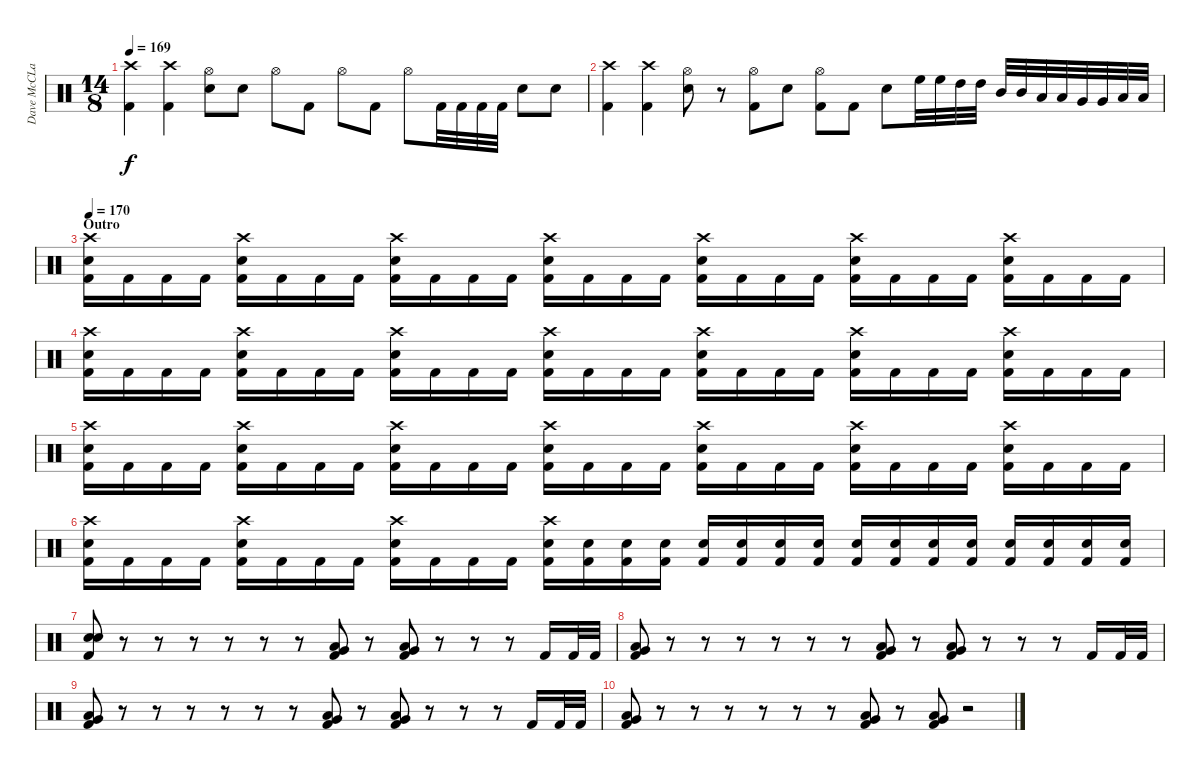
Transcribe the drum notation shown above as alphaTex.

\track ("Dave McCLain" "Dave McCLa") {instrument percussion}
\staff {score}
\articulation defaults
\ts (14 8)
\tempo 169
\clef neutral
\ks c
("Crash high (hit)" "Kick (hit) 2").4{dy f} ("Crash high (hit)" "Kick (hit) 2").4 ("Hi-Hat (open)" "Electric Snare (hit)").8 "Electric Snare (hit)".8 "Hi-Hat (open)".8 "Kick (hit) 2".8 "Hi-Hat (open)".8 "Kick (hit) 2".8 "Hi-Hat (open)".8 "Kick (hit) 2".32 "Kick (hit) 2".32 "Kick (hit) 2".32 "Kick (hit) 2".32 "Electric Snare (hit)".8 "Electric Snare (hit)".8 |
("Crash high (hit)" "Kick (hit) 2").4 ("Crash high (hit)" "Kick (hit) 2").4 ("Hi-Hat (open)" "Electric Snare (hit)").8 r.8 ("Hi-Hat (open)" "Kick (hit) 2").8 "Electric Snare (hit)".8 ("Hi-Hat (open)" "Kick (hit) 2").8 "Kick (hit) 2".8 "Electric Snare (hit)".8 "High Floor Tom (hit)".32 "High Floor Tom (hit)".32 "High Tom (hit)".32 "High Tom (hit)".32 "Mid Tom (hit)".32 "Mid Tom (hit)".32 "Low Tom (hit)".32 "Low Tom (hit)".32 "Very Low Tom (hit)".32 "Very Low Tom (hit)".32 "Low Floor Tom (hit)".32 "Low Floor Tom (hit)".32 |
\section ("" "Outro")
\tempo 170
("Crash high (hit)" "Electric Snare (hit)" "Kick (hit) 2").16 "Kick (hit) 2".16 "Kick (hit) 2".16 "Kick (hit) 2".16 ("Crash high (hit)" "Electric Snare (hit)" "Kick (hit) 2").16 "Kick (hit) 2".16 "Kick (hit) 2".16 "Kick (hit) 2".16 ("Crash high (hit)" "Electric Snare (hit)" "Kick (hit) 2").16 "Kick (hit) 2".16 "Kick (hit) 2".16 "Kick (hit) 2".16 ("Crash high (hit)" "Electric Snare (hit)" "Kick (hit) 2").16 "Kick (hit) 2".16 "Kick (hit) 2".16 "Kick (hit) 2".16 ("Crash high (hit)" "Electric Snare (hit)" "Kick (hit) 2").16 "Kick (hit) 2".16 "Kick (hit) 2".16 "Kick (hit) 2".16 ("Crash high (hit)" "Electric Snare (hit)" "Kick (hit) 2").16 "Kick (hit) 2".16 "Kick (hit) 2".16 "Kick (hit) 2".16 ("Crash high (hit)" "Electric Snare (hit)" "Kick (hit) 2").16 "Kick (hit) 2".16 "Kick (hit) 2".16 "Kick (hit) 2".16 |
("Crash high (hit)" "Electric Snare (hit)" "Kick (hit) 2").16 "Kick (hit) 2".16 "Kick (hit) 2".16 "Kick (hit) 2".16 ("Crash high (hit)" "Electric Snare (hit)" "Kick (hit) 2").16 "Kick (hit) 2".16 "Kick (hit) 2".16 "Kick (hit) 2".16 ("Crash high (hit)" "Electric Snare (hit)" "Kick (hit) 2").16 "Kick (hit) 2".16 "Kick (hit) 2".16 "Kick (hit) 2".16 ("Crash high (hit)" "Electric Snare (hit)" "Kick (hit) 2").16 "Kick (hit) 2".16 "Kick (hit) 2".16 "Kick (hit) 2".16 ("Crash high (hit)" "Electric Snare (hit)" "Kick (hit) 2").16 "Kick (hit) 2".16 "Kick (hit) 2".16 "Kick (hit) 2".16 ("Crash high (hit)" "Electric Snare (hit)" "Kick (hit) 2").16 "Kick (hit) 2".16 "Kick (hit) 2".16 "Kick (hit) 2".16 ("Crash high (hit)" "Electric Snare (hit)" "Kick (hit) 2").16 "Kick (hit) 2".16 "Kick (hit) 2".16 "Kick (hit) 2".16 |
("Crash high (hit)" "Electric Snare (hit)" "Kick (hit) 2").16 "Kick (hit) 2".16 "Kick (hit) 2".16 "Kick (hit) 2".16 ("Crash high (hit)" "Electric Snare (hit)" "Kick (hit) 2").16 "Kick (hit) 2".16 "Kick (hit) 2".16 "Kick (hit) 2".16 ("Crash high (hit)" "Electric Snare (hit)" "Kick (hit) 2").16 "Kick (hit) 2".16 "Kick (hit) 2".16 "Kick (hit) 2".16 ("Crash high (hit)" "Electric Snare (hit)" "Kick (hit) 2").16 "Kick (hit) 2".16 "Kick (hit) 2".16 "Kick (hit) 2".16 ("Crash high (hit)" "Electric Snare (hit)" "Kick (hit) 2").16 "Kick (hit) 2".16 "Kick (hit) 2".16 "Kick (hit) 2".16 ("Crash high (hit)" "Electric Snare (hit)" "Kick (hit) 2").16 "Kick (hit) 2".16 "Kick (hit) 2".16 "Kick (hit) 2".16 ("Crash high (hit)" "Electric Snare (hit)" "Kick (hit) 2").16 "Kick (hit) 2".16 "Kick (hit) 2".16 "Kick (hit) 2".16 |
("Crash high (hit)" "Electric Snare (hit)" "Kick (hit) 2").16 "Kick (hit) 2".16 "Kick (hit) 2".16 "Kick (hit) 2".16 ("Crash high (hit)" "Electric Snare (hit)" "Kick (hit) 2").16 "Kick (hit) 2".16 "Kick (hit) 2".16 "Kick (hit) 2".16 ("Crash high (hit)" "Electric Snare (hit)" "Kick (hit) 2").16 "Kick (hit) 2".16 "Kick (hit) 2".16 "Kick (hit) 2".16 ("Crash high (hit)" "Electric Snare (hit)" "Kick (hit) 2").16 ("Electric Snare (hit)" "Kick (hit) 2").16 ("Electric Snare (hit)" "Kick (hit) 2").16 ("Electric Snare (hit)" "Kick (hit) 2").16 ("Electric Snare (hit)" "Kick (hit) 2").16 ("Electric Snare (hit)" "Kick (hit) 2").16 ("Electric Snare (hit)" "Kick (hit) 2").16 ("Electric Snare (hit)" "Kick (hit) 2").16 ("Electric Snare (hit)" "Kick (hit) 2").16 ("Electric Snare (hit)" "Kick (hit) 2").16 ("Electric Snare (hit)" "Kick (hit) 2").16 ("Electric Snare (hit)" "Kick (hit) 2").16 ("Electric Snare (hit)" "Kick (hit) 2").16 ("Electric Snare (hit)" "Kick (hit) 2").16 ("Electric Snare (hit)" "Kick (hit) 2").16 ("Electric Snare (hit)" "Kick (hit) 2").16 |
("Electric Snare (hit)" "Electric Snare (hit)" "Kick (hit) 2").8 r.8 r.8 r.8 r.8 r.8 r.8 ("Low Tom (hit)" "Very Low Tom (hit)" "Kick (hit) 2").8 r.8 ("Low Tom (hit)" "Very Low Tom (hit)" "Kick (hit) 2").8 r.8 r.8 r.8 "Kick (hit) 2".16 "Kick (hit) 2".32 "Kick (hit) 2".32 |
("Low Tom (hit)" "Very Low Tom (hit)" "Kick (hit) 2").8 r.8 r.8 r.8 r.8 r.8 r.8 ("Low Tom (hit)" "Very Low Tom (hit)" "Kick (hit) 2").8 r.8 ("Low Tom (hit)" "Very Low Tom (hit)" "Kick (hit) 2").8 r.8 r.8 r.8 "Kick (hit) 2".16 "Kick (hit) 2".32 "Kick (hit) 2".32 |
("Low Tom (hit)" "Very Low Tom (hit)" "Kick (hit) 2").8 r.8 r.8 r.8 r.8 r.8 r.8 ("Low Tom (hit)" "Very Low Tom (hit)" "Kick (hit) 2").8 r.8 ("Low Tom (hit)" "Very Low Tom (hit)" "Kick (hit) 2").8 r.8 r.8 r.8 "Kick (hit) 2".16 "Kick (hit) 2".32 "Kick (hit) 2".32 |
("Low Tom (hit)" "Very Low Tom (hit)" "Kick (hit) 2").8 r.8 r.8 r.8 r.8 r.8 r.8 ("Low Tom (hit)" "Very Low Tom (hit)" "Kick (hit) 2").8 r.8 ("Low Tom (hit)" "Very Low Tom (hit)" "Kick (hit) 2").8 r.2
